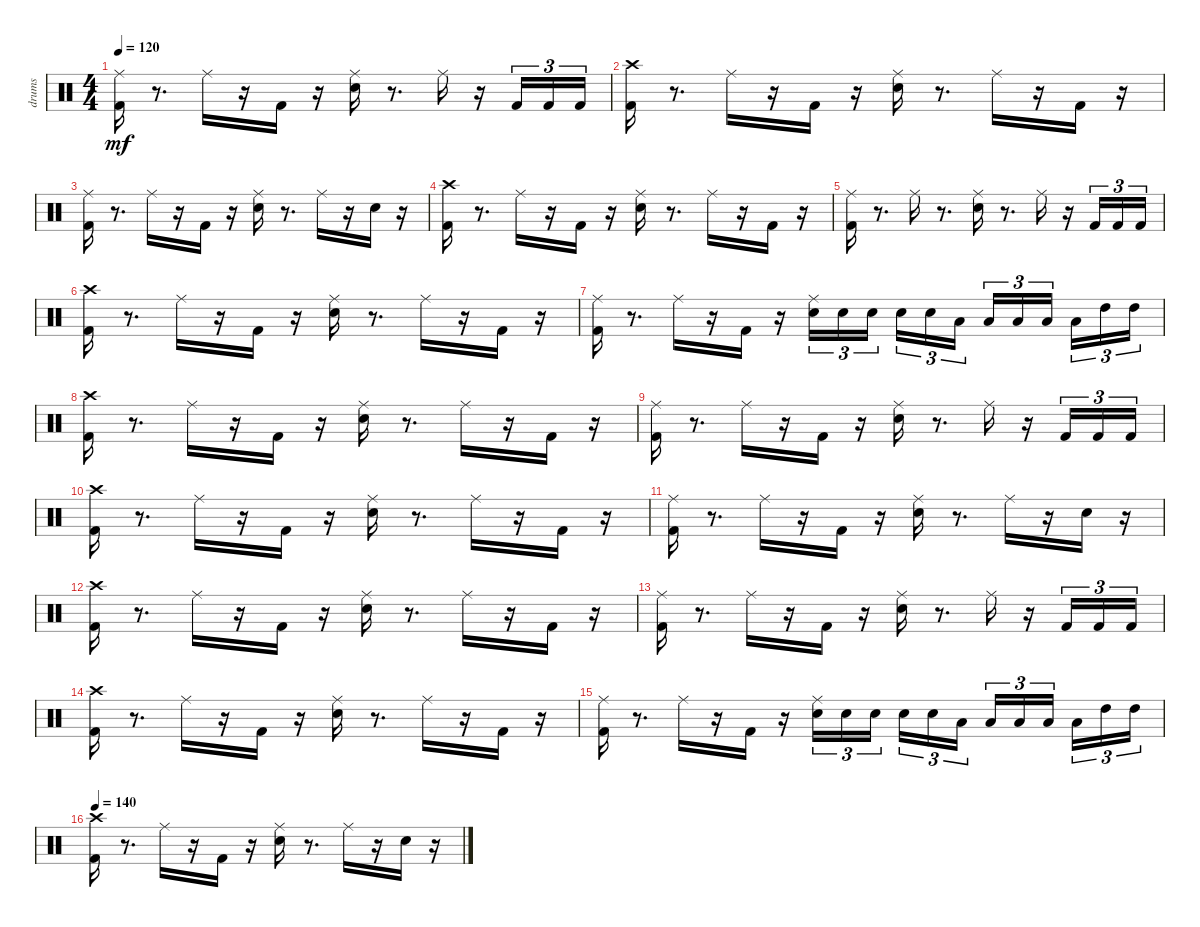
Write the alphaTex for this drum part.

\track ("drums               " "drums     ") {instrument percussion}
\staff {score}
\articulation defaults
\ts (4 4)
\tempo 120
\clef neutral
\ks c
("Kick (hit) 2" "Ride (middle)").16{dy mf} r.8{d} "Ride (middle)".16 r.16 "Kick (hit) 2".16 r.16 ("Ride (middle)" "Snare (hit) 2").16 r.8{d} "Ride (middle)".16 r.16 "Kick (hit) 2".16{tu (3 2)} "Kick (hit) 2".16{tu (3 2)} "Kick (hit) 2".16{tu (3 2)} |
("Kick (hit) 2" "Crash high (hit)").16 r.8{d} "Ride (middle)".16 r.16 "Kick (hit) 2".16 r.16 ("Ride (middle)" "Snare (hit) 2").16 r.8{d} "Ride (middle)".16 r.16 "Kick (hit) 2".16 r.16 |
("Kick (hit) 2" "Ride (middle)").16 r.8{d} "Ride (middle)".16 r.16 "Kick (hit) 2".16 r.16 ("Ride (middle)" "Snare (hit) 2").16 r.8{d} "Ride (middle)".16 r.16 "Snare (hit) 2".16 r.16 |
("Kick (hit) 2" "Crash high (hit)").16 r.8{d} "Ride (middle)".16 r.16 "Kick (hit) 2".16 r.16 ("Ride (middle)" "Snare (hit) 2").16 r.8{d} "Ride (middle)".16 r.16 "Kick (hit) 2".16 r.16 |
("Kick (hit) 2" "Ride (middle)").16 r.8{d} "Ride (middle)".16 r.8{d} ("Ride (middle)" "Snare (hit) 2").16 r.8{d} "Ride (middle)".16 r.16 "Kick (hit) 2".16{tu (3 2)} "Kick (hit) 2".16{tu (3 2)} "Kick (hit) 2".16{tu (3 2)} |
("Kick (hit) 2" "Crash high (hit)").16 r.8{d} "Ride (middle)".16 r.16 "Kick (hit) 2".16 r.16 ("Ride (middle)" "Snare (hit) 2").16 r.8{d} "Ride (middle)".16 r.16 "Kick (hit) 2".16 r.16 |
("Kick (hit) 2" "Ride (middle)").16 r.8{d} "Ride (middle)".16 r.16 "Kick (hit) 2".16 r.16 ("Ride (middle)" "Snare (hit) 2").16{tu (3 2)} "Snare (hit) 2".16{tu (3 2)} "Snare (hit) 2".16{tu (3 2)} "Snare (hit) 2".16{tu (3 2)} "Snare (hit) 2".16{tu (3 2)} "Low Tom (hit)".16{tu (3 2)} "Low Tom (hit)".16{tu (3 2)} "Low Tom (hit)".16{tu (3 2)} "Low Tom (hit)".16{tu (3 2)} "Low Tom (hit)".16{tu (3 2)} "High Tom (hit)".16{tu (3 2)} "High Tom (hit)".16{tu (3 2)} |
("Kick (hit) 2" "Crash high (hit)").16 r.8{d} "Ride (middle)".16 r.16 "Kick (hit) 2".16 r.16 ("Ride (middle)" "Snare (hit) 2").16 r.8{d} "Ride (middle)".16 r.16 "Kick (hit) 2".16 r.16 |
("Kick (hit) 2" "Ride (middle)").16 r.8{d} "Ride (middle)".16 r.16 "Kick (hit) 2".16 r.16 ("Ride (middle)" "Snare (hit) 2").16 r.8{d} "Ride (middle)".16 r.16 "Kick (hit) 2".16{tu (3 2)} "Kick (hit) 2".16{tu (3 2)} "Kick (hit) 2".16{tu (3 2)} |
("Kick (hit) 2" "Crash high (hit)").16 r.8{d} "Ride (middle)".16 r.16 "Kick (hit) 2".16 r.16 ("Ride (middle)" "Snare (hit) 2").16 r.8{d} "Ride (middle)".16 r.16 "Kick (hit) 2".16 r.16 |
("Kick (hit) 2" "Ride (middle)").16 r.8{d} "Ride (middle)".16 r.16 "Kick (hit) 2".16 r.16 ("Ride (middle)" "Snare (hit) 2").16 r.8{d} "Ride (middle)".16 r.16 "Snare (hit) 2".16 r.16 |
("Kick (hit) 2" "Crash high (hit)").16 r.8{d} "Ride (middle)".16 r.16 "Kick (hit) 2".16 r.16 ("Ride (middle)" "Snare (hit) 2").16 r.8{d} "Ride (middle)".16 r.16 "Kick (hit) 2".16 r.16 |
("Kick (hit) 2" "Ride (middle)").16 r.8{d} "Ride (middle)".16 r.16 "Kick (hit) 2".16 r.16 ("Ride (middle)" "Snare (hit) 2").16 r.8{d} "Ride (middle)".16 r.16 "Kick (hit) 2".16{tu (3 2)} "Kick (hit) 2".16{tu (3 2)} "Kick (hit) 2".16{tu (3 2)} |
("Kick (hit) 2" "Crash high (hit)").16 r.8{d} "Ride (middle)".16 r.16 "Kick (hit) 2".16 r.16 ("Ride (middle)" "Snare (hit) 2").16 r.8{d} "Ride (middle)".16 r.16 "Kick (hit) 2".16 r.16 |
("Kick (hit) 2" "Ride (middle)").16 r.8{d} "Ride (middle)".16 r.16 "Kick (hit) 2".16 r.16 ("Ride (middle)" "Snare (hit) 2").16{tu (3 2)} "Snare (hit) 2".16{tu (3 2)} "Snare (hit) 2".16{tu (3 2)} "Snare (hit) 2".16{tu (3 2)} "Snare (hit) 2".16{tu (3 2)} "Low Tom (hit)".16{tu (3 2)} "Low Tom (hit)".16{tu (3 2)} "Low Tom (hit)".16{tu (3 2)} "Low Tom (hit)".16{tu (3 2)} "Low Tom (hit)".16{tu (3 2)} "High Tom (hit)".16{tu (3 2)} "High Tom (hit)".16{tu (3 2)} |
\tempo 140
("Kick (hit) 2" "Crash high (hit)").16 r.8{d} "Ride (middle)".16 r.16 "Kick (hit) 2".16 r.16 ("Ride (middle)" "Snare (hit) 2").16 r.8{d} "Ride (middle)".16 r.16 "Snare (hit) 2".16 r.16
